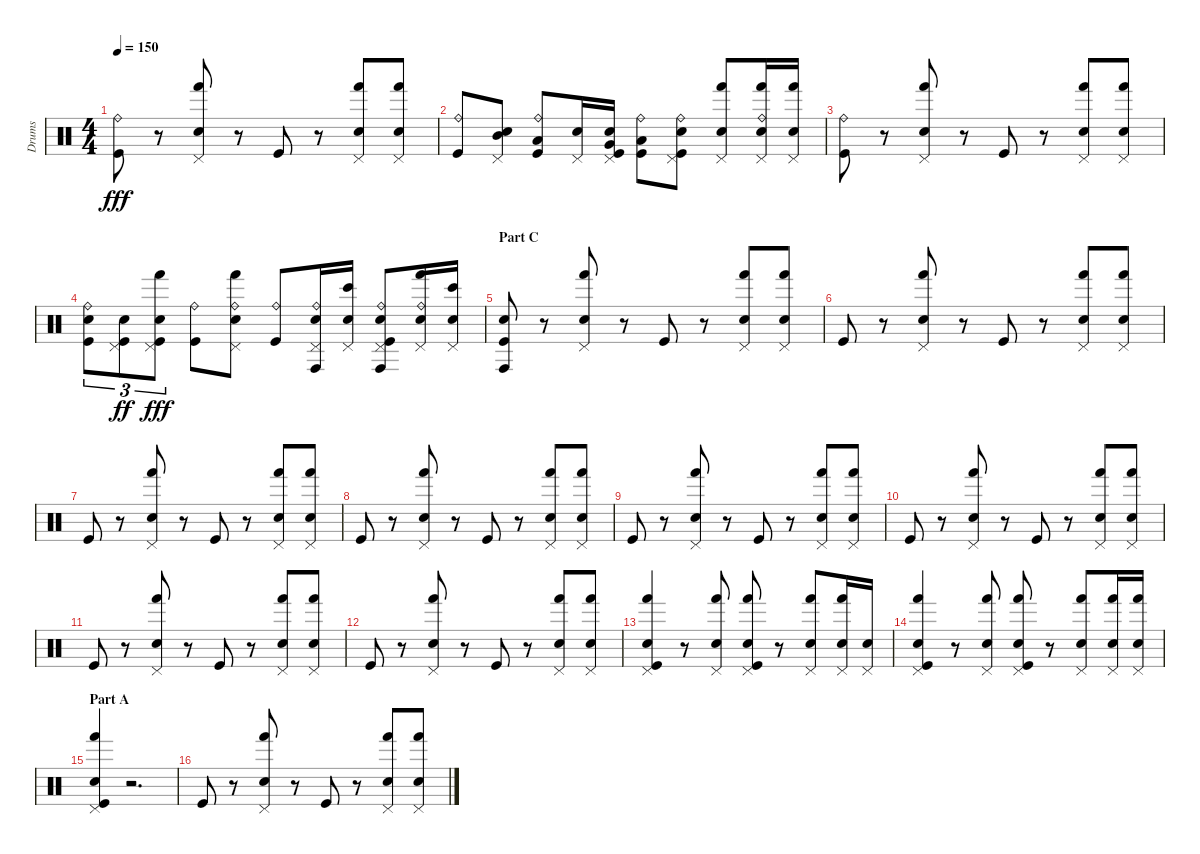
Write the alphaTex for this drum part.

\track ("Drums" "Drums") {instrument percussion}
\staff {score}
\articulation defaults
\ts (4 4)
\tempo 150
\clef neutral
\ks c
("Ride (bell)" "Kick (hit)").8{dy fff} r.8 ("Pedal Hi-Hat (hit)" "Hand (hit)" "Electric Snare (hit)").8 r.8 "Kick (hit)".8 r.8 ("Pedal Hi-Hat (hit)" "Hand (hit)" "Electric Snare (hit)").8 ("Pedal Hi-Hat (hit)" "Hand (hit)" "Electric Snare (hit)").8 |
("Ride (bell)" "Kick (hit)").8 ("Pedal Hi-Hat (hit)" "Mid Tom (hit)" "Electric Snare (hit)").8 ("Ride (bell)" "Low Tom (hit)" "Kick (hit)").8 ("Pedal Hi-Hat (hit)" "Electric Snare (hit)").16 ("Pedal Hi-Hat (hit)" "Very Low Tom (hit)" "Electric Snare (hit)" "Kick (hit)").16 ("Ride (bell)" "Low Floor Tom (hit)" "Kick (hit)").8 ("Ride (bell)" "Pedal Hi-Hat (hit)" "Electric Snare (hit)" "Kick (hit)").8 ("Pedal Hi-Hat (hit)" "Hand (hit)" "Electric Snare (hit)").8 ("Ride (bell)" "Pedal Hi-Hat (hit)" "Hand (hit)" "Electric Snare (hit)").16 ("Pedal Hi-Hat (hit)" "Hand (hit)" "Electric Snare (hit)").16 |
("Ride (bell)" "Kick (hit)").8 r.8 ("Pedal Hi-Hat (hit)" "Hand (hit)" "Electric Snare (hit)").8 r.8 "Kick (hit)".8 r.8 ("Pedal Hi-Hat (hit)" "Hand (hit)" "Electric Snare (hit)").8 ("Pedal Hi-Hat (hit)" "Hand (hit)" "Electric Snare (hit)").8 |
("Ride (bell)" "Electric Snare (hit)" "Kick (hit)").8{tu (3 2)} ("Pedal Hi-Hat (hit)" "Electric Snare (hit)" "Kick (hit)").8{tu (3 2) dy ff} ("Pedal Hi-Hat (hit)" "Hand (hit)" "Electric Snare (hit)" "Kick (hit)").8{tu (3 2) dy fff} ("Ride (bell)" "Kick (hit)").8 ("Ride (bell)" "Pedal Hi-Hat (hit)" "Hand (hit)" "Electric Snare (hit)").8 ("Ride (bell)" "Kick (hit)").8 ("Ride (bell)" "Pedal Hi-Hat (hit)" "Conga high (hit)" "Electric Snare (hit)").16 ("Pedal Hi-Hat (hit)" "Bongo High (hit)" "Electric Snare (hit)").16 ("Ride (bell)" "Pedal Hi-Hat (hit)" "Conga high (hit)" "Electric Snare (hit)" "Kick (hit)").8 ("Ride (bell)" "Pedal Hi-Hat (hit)" "Hand (hit)" "Electric Snare (hit)").16 ("Pedal Hi-Hat (hit)" "Bongo High (hit)" "Electric Snare (hit)").16 |
\section ("" "Part C")
("Conga high (hit)" "Electric Snare (hit)" "Kick (hit)").8 r.8 ("Pedal Hi-Hat (hit)" "Hand (hit)" "Electric Snare (hit)").8 r.8 "Kick (hit)".8 r.8 ("Pedal Hi-Hat (hit)" "Hand (hit)" "Electric Snare (hit)").8 ("Pedal Hi-Hat (hit)" "Hand (hit)" "Electric Snare (hit)").8 |
"Kick (hit)".8 r.8 ("Pedal Hi-Hat (hit)" "Hand (hit)" "Electric Snare (hit)").8 r.8 "Kick (hit)".8 r.8 ("Pedal Hi-Hat (hit)" "Hand (hit)" "Electric Snare (hit)").8 ("Pedal Hi-Hat (hit)" "Hand (hit)" "Electric Snare (hit)").8 |
"Kick (hit)".8 r.8 ("Pedal Hi-Hat (hit)" "Hand (hit)" "Electric Snare (hit)").8 r.8 "Kick (hit)".8 r.8 ("Pedal Hi-Hat (hit)" "Hand (hit)" "Electric Snare (hit)").8 ("Pedal Hi-Hat (hit)" "Hand (hit)" "Electric Snare (hit)").8 |
"Kick (hit)".8 r.8 ("Pedal Hi-Hat (hit)" "Hand (hit)" "Electric Snare (hit)").8 r.8 "Kick (hit)".8 r.8 ("Pedal Hi-Hat (hit)" "Hand (hit)" "Electric Snare (hit)").8 ("Pedal Hi-Hat (hit)" "Hand (hit)" "Electric Snare (hit)").8 |
"Kick (hit)".8 r.8 ("Pedal Hi-Hat (hit)" "Hand (hit)" "Electric Snare (hit)").8 r.8 "Kick (hit)".8 r.8 ("Pedal Hi-Hat (hit)" "Hand (hit)" "Electric Snare (hit)").8 ("Pedal Hi-Hat (hit)" "Hand (hit)" "Electric Snare (hit)").8 |
"Kick (hit)".8 r.8 ("Pedal Hi-Hat (hit)" "Hand (hit)" "Electric Snare (hit)").8 r.8 "Kick (hit)".8 r.8 ("Pedal Hi-Hat (hit)" "Hand (hit)" "Electric Snare (hit)").8 ("Pedal Hi-Hat (hit)" "Hand (hit)" "Electric Snare (hit)").8 |
"Kick (hit)".8 r.8 ("Pedal Hi-Hat (hit)" "Hand (hit)" "Electric Snare (hit)").8 r.8 "Kick (hit)".8 r.8 ("Pedal Hi-Hat (hit)" "Hand (hit)" "Electric Snare (hit)").8 ("Pedal Hi-Hat (hit)" "Hand (hit)" "Electric Snare (hit)").8 |
"Kick (hit)".8 r.8 ("Pedal Hi-Hat (hit)" "Hand (hit)" "Electric Snare (hit)").8 r.8 "Kick (hit)".8 r.8 ("Pedal Hi-Hat (hit)" "Hand (hit)" "Electric Snare (hit)").8 ("Pedal Hi-Hat (hit)" "Hand (hit)" "Electric Snare (hit)").8 |
("Pedal Hi-Hat (hit)" "Hand (hit)" "Electric Snare (hit)" "Kick (hit)").4 r.8 ("Pedal Hi-Hat (hit)" "Hand (hit)" "Electric Snare (hit)").8 ("Pedal Hi-Hat (hit)" "Hand (hit)" "Electric Snare (hit)" "Kick (hit)").8 r.8 ("Pedal Hi-Hat (hit)" "Hand (hit)" "Electric Snare (hit)").8 ("Pedal Hi-Hat (hit)" "Hand (hit)" "Electric Snare (hit)").16 ("Pedal Hi-Hat (hit)" "Electric Snare (hit)").16 |
("Pedal Hi-Hat (hit)" "Hand (hit)" "Electric Snare (hit)" "Kick (hit)").4 r.8 ("Pedal Hi-Hat (hit)" "Hand (hit)" "Electric Snare (hit)").8 ("Pedal Hi-Hat (hit)" "Hand (hit)" "Electric Snare (hit)" "Kick (hit)").8 r.8 ("Pedal Hi-Hat (hit)" "Hand (hit)" "Electric Snare (hit)").8 ("Pedal Hi-Hat (hit)" "Hand (hit)" "Electric Snare (hit)").16 ("Pedal Hi-Hat (hit)" "Hand (hit)" "Electric Snare (hit)").16 |
\section ("" "Part A")
("Pedal Hi-Hat (hit)" "Hand (hit)" "Electric Snare (hit)" "Kick (hit)").4 r.2{d} |
"Kick (hit)".8 r.8 ("Pedal Hi-Hat (hit)" "Hand (hit)" "Electric Snare (hit)").8 r.8 "Kick (hit)".8 r.8 ("Pedal Hi-Hat (hit)" "Hand (hit)" "Electric Snare (hit)").8 ("Pedal Hi-Hat (hit)" "Hand (hit)" "Electric Snare (hit)").8
